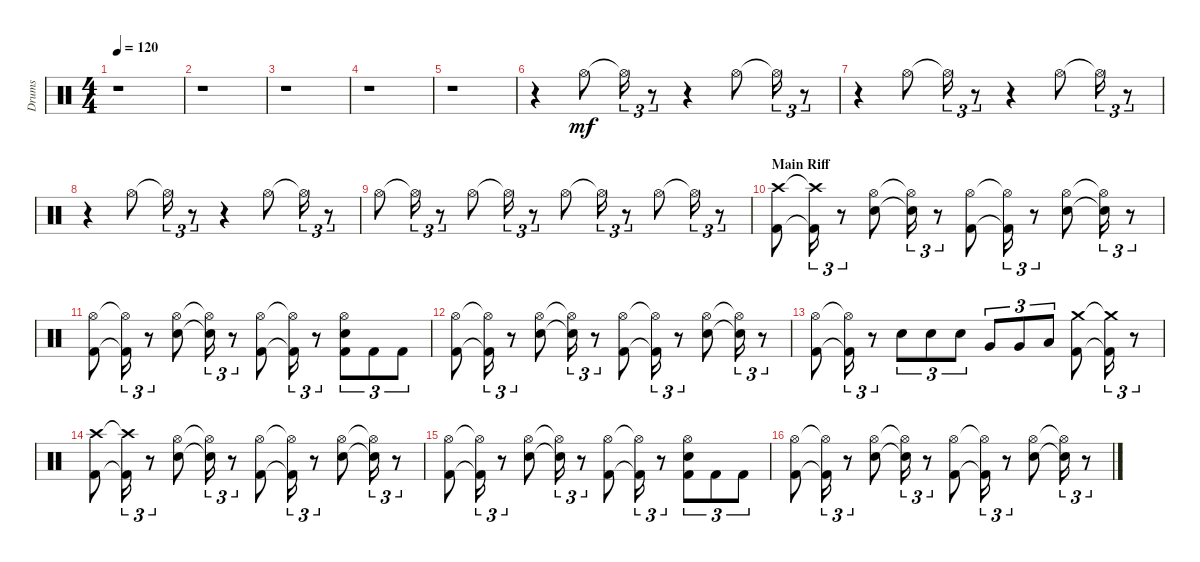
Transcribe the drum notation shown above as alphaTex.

\track ("Drums" "Drums") {instrument percussion}
\staff {score}
\articulation defaults
\ts (4 4)
\tempo 120
\clef neutral
\ks aminor
r.1{dy mf} |
r.1 |
r.1 |
r.1 |
r.1 |
r.4 "Hi-Hat (open)".8 "Hi-Hat (open)"{t}.16{tu (3 2)} r.8{tu (3 2)} r.4 "Hi-Hat (open)".8 "Hi-Hat (open)"{t}.16{tu (3 2)} r.8{tu (3 2)} |
r.4 "Hi-Hat (open)".8 "Hi-Hat (open)"{t}.16{tu (3 2)} r.8{tu (3 2)} r.4 "Hi-Hat (open)".8 "Hi-Hat (open)"{t}.16{tu (3 2)} r.8{tu (3 2)} |
r.4 "Hi-Hat (open)".8 "Hi-Hat (open)"{t}.16{tu (3 2)} r.8{tu (3 2)} r.4 "Hi-Hat (open)".8 "Hi-Hat (open)"{t}.16{tu (3 2)} r.8{tu (3 2)} |
"Hi-Hat (open)".8 "Hi-Hat (open)"{t}.16{tu (3 2)} r.8{tu (3 2)} "Hi-Hat (open)".8 "Hi-Hat (open)"{t}.16{tu (3 2)} r.8{tu (3 2)} "Hi-Hat (open)".8 "Hi-Hat (open)"{t}.16{tu (3 2)} r.8{tu (3 2)} "Hi-Hat (open)".8 "Hi-Hat (open)"{t}.16{tu (3 2)} r.8{tu (3 2)} |
\section ("" "Main Riff")
("Kick (hit) 2" "Crash high (hit)").8 ("Kick (hit) 2"{t} "Crash high (hit)"{t}).16{tu (3 2)} r.8{tu (3 2)} ("Snare (hit) 2" "Hi-Hat (open)").8 ("Snare (hit) 2"{t} "Hi-Hat (open)"{t}).16{tu (3 2)} r.8{tu (3 2)} ("Kick (hit) 2" "Hi-Hat (open)").8 ("Kick (hit) 2"{t} "Hi-Hat (open)"{t}).16{tu (3 2)} r.8{tu (3 2)} ("Snare (hit) 2" "Hi-Hat (open)").8 ("Snare (hit) 2"{t} "Hi-Hat (open)"{t}).16{tu (3 2)} r.8{tu (3 2)} |
("Kick (hit) 2" "Hi-Hat (open)").8 ("Kick (hit) 2"{t} "Hi-Hat (open)"{t}).16{tu (3 2)} r.8{tu (3 2)} ("Snare (hit) 2" "Hi-Hat (open)").8 ("Snare (hit) 2"{t} "Hi-Hat (open)"{t}).16{tu (3 2)} r.8{tu (3 2)} ("Kick (hit) 2" "Hi-Hat (open)").8 ("Kick (hit) 2"{t} "Hi-Hat (open)"{t}).16{tu (3 2)} r.8{tu (3 2)} ("Kick (hit) 2" "Snare (hit) 2" "Hi-Hat (open)").8{tu (3 2)} "Kick (hit) 2".8{tu (3 2)} "Kick (hit) 2".8{tu (3 2)} |
("Kick (hit) 2" "Hi-Hat (open)").8 ("Kick (hit) 2"{t} "Hi-Hat (open)"{t}).16{tu (3 2)} r.8{tu (3 2)} ("Snare (hit) 2" "Hi-Hat (open)").8 ("Snare (hit) 2"{t} "Hi-Hat (open)"{t}).16{tu (3 2)} r.8{tu (3 2)} ("Kick (hit) 2" "Hi-Hat (open)").8 ("Kick (hit) 2"{t} "Hi-Hat (open)"{t}).16{tu (3 2)} r.8{tu (3 2)} ("Snare (hit) 2" "Hi-Hat (open)").8 ("Snare (hit) 2"{t} "Hi-Hat (open)"{t}).16{tu (3 2)} r.8{tu (3 2)} |
("Kick (hit) 2" "Hi-Hat (open)").8 ("Kick (hit) 2"{t} "Hi-Hat (open)"{t}).16{tu (3 2)} r.8{tu (3 2)} "Snare (hit) 2".8{tu (3 2)} "Snare (hit) 2".8{tu (3 2)} "Snare (hit) 2".8{tu (3 2)} "Very Low Tom (hit)".8{tu (3 2)} "Very Low Tom (hit)".8{tu (3 2)} "Low Floor Tom (hit)".8{tu (3 2)} ("Kick (hit) 2" "Crash medium (hit)").8 ("Kick (hit) 2"{t} "Crash medium (hit)"{t}).16{tu (3 2)} r.8{tu (3 2)} |
("Kick (hit) 2" "Crash high (hit)").8 ("Kick (hit) 2"{t} "Crash high (hit)"{t}).16{tu (3 2)} r.8{tu (3 2)} ("Snare (hit) 2" "Hi-Hat (open)").8 ("Snare (hit) 2"{t} "Hi-Hat (open)"{t}).16{tu (3 2)} r.8{tu (3 2)} ("Kick (hit) 2" "Hi-Hat (open)").8 ("Kick (hit) 2"{t} "Hi-Hat (open)"{t}).16{tu (3 2)} r.8{tu (3 2)} ("Snare (hit) 2" "Hi-Hat (open)").8 ("Snare (hit) 2"{t} "Hi-Hat (open)"{t}).16{tu (3 2)} r.8{tu (3 2)} |
("Kick (hit) 2" "Hi-Hat (open)").8 ("Kick (hit) 2"{t} "Hi-Hat (open)"{t}).16{tu (3 2)} r.8{tu (3 2)} ("Snare (hit) 2" "Hi-Hat (open)").8 ("Snare (hit) 2"{t} "Hi-Hat (open)"{t}).16{tu (3 2)} r.8{tu (3 2)} ("Kick (hit) 2" "Hi-Hat (open)").8 ("Kick (hit) 2"{t} "Hi-Hat (open)"{t}).16{tu (3 2)} r.8{tu (3 2)} ("Kick (hit) 2" "Snare (hit) 2" "Hi-Hat (open)").8{tu (3 2)} "Kick (hit) 2".8{tu (3 2)} "Kick (hit) 2".8{tu (3 2)} |
("Kick (hit) 2" "Hi-Hat (open)").8 ("Kick (hit) 2"{t} "Hi-Hat (open)"{t}).16{tu (3 2)} r.8{tu (3 2)} ("Snare (hit) 2" "Hi-Hat (open)").8 ("Snare (hit) 2"{t} "Hi-Hat (open)"{t}).16{tu (3 2)} r.8{tu (3 2)} ("Kick (hit) 2" "Hi-Hat (open)").8 ("Kick (hit) 2"{t} "Hi-Hat (open)"{t}).16{tu (3 2)} r.8{tu (3 2)} ("Snare (hit) 2" "Hi-Hat (open)").8 ("Snare (hit) 2"{t} "Hi-Hat (open)"{t}).16{tu (3 2)} r.8{tu (3 2)}
